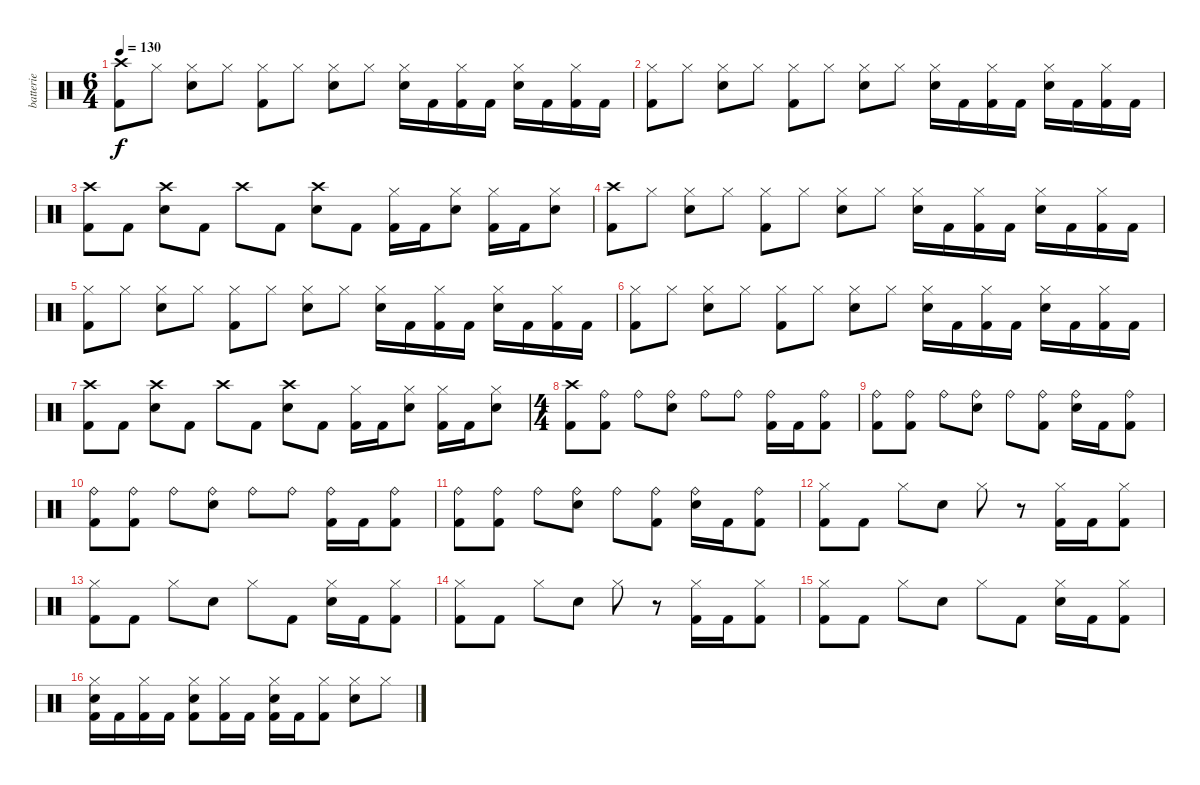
\track ("batterie" "batterie") {instrument percussion}
\staff {score}
\articulation defaults
\ts (6 4)
\tempo 130
\clef neutral
\ks c
("Crash high (hit)" "Kick (hit) 2").8{dy f} "Hi-Hat (closed)".8 ("Snare (hit) 2" "Hi-Hat (closed)").8 "Hi-Hat (closed)".8 ("Kick (hit) 2" "Hi-Hat (closed)").8 "Hi-Hat (closed)".8 ("Snare (hit) 2" "Hi-Hat (closed)").8 "Hi-Hat (closed)".8 ("Snare (hit) 2" "Hi-Hat (closed)").16 "Kick (hit) 2".16 ("Kick (hit) 2" "Hi-Hat (closed)").16 "Kick (hit) 2".16 ("Snare (hit) 2" "Hi-Hat (closed)").16 "Kick (hit) 2".16 ("Kick (hit) 2" "Hi-Hat (closed)").16 "Kick (hit) 2".16 |
("Kick (hit) 2" "Hi-Hat (closed)").8 "Hi-Hat (closed)".8 ("Snare (hit) 2" "Hi-Hat (closed)").8 "Hi-Hat (closed)".8 ("Kick (hit) 2" "Hi-Hat (closed)").8 "Hi-Hat (closed)".8 ("Snare (hit) 2" "Hi-Hat (closed)").8 "Hi-Hat (closed)".8 ("Snare (hit) 2" "Hi-Hat (closed)").16 "Kick (hit) 2".16 ("Kick (hit) 2" "Hi-Hat (closed)").16 "Kick (hit) 2".16 ("Snare (hit) 2" "Hi-Hat (closed)").16 "Kick (hit) 2".16 ("Kick (hit) 2" "Hi-Hat (closed)").16 "Kick (hit) 2".16 |
("Crash high (hit)" "Kick (hit) 2").8 "Kick (hit) 2".8 ("Crash high (hit)" "Snare (hit) 2").8 "Kick (hit) 2".8 "Crash high (hit)".8 "Kick (hit) 2".8 ("Crash high (hit)" "Snare (hit) 2").8 "Kick (hit) 2".8 ("Kick (hit) 2" "Hi-Hat (closed)").16 "Kick (hit) 2".16 ("Snare (hit) 2" "Hi-Hat (closed)").8 ("Kick (hit) 2" "Hi-Hat (closed)").16 "Kick (hit) 2".16 ("Snare (hit) 2" "Hi-Hat (closed)").8 |
("Crash high (hit)" "Kick (hit) 2").8 "Hi-Hat (closed)".8 ("Snare (hit) 2" "Hi-Hat (closed)").8 "Hi-Hat (closed)".8 ("Kick (hit) 2" "Hi-Hat (closed)").8 "Hi-Hat (closed)".8 ("Snare (hit) 2" "Hi-Hat (closed)").8 "Hi-Hat (closed)".8 ("Snare (hit) 2" "Hi-Hat (closed)").16 "Kick (hit) 2".16 ("Kick (hit) 2" "Hi-Hat (closed)").16 "Kick (hit) 2".16 ("Snare (hit) 2" "Hi-Hat (closed)").16 "Kick (hit) 2".16 ("Kick (hit) 2" "Hi-Hat (closed)").16 "Kick (hit) 2".16 |
("Kick (hit) 2" "Hi-Hat (closed)").8 "Hi-Hat (closed)".8 ("Snare (hit) 2" "Hi-Hat (closed)").8 "Hi-Hat (closed)".8 ("Kick (hit) 2" "Hi-Hat (closed)").8 "Hi-Hat (closed)".8 ("Snare (hit) 2" "Hi-Hat (closed)").8 "Hi-Hat (closed)".8 ("Snare (hit) 2" "Hi-Hat (closed)").16 "Kick (hit) 2".16 ("Kick (hit) 2" "Hi-Hat (closed)").16 "Kick (hit) 2".16 ("Snare (hit) 2" "Hi-Hat (closed)").16 "Kick (hit) 2".16 ("Kick (hit) 2" "Hi-Hat (closed)").16 "Kick (hit) 2".16 |
("Kick (hit) 2" "Hi-Hat (closed)").8 "Hi-Hat (closed)".8 ("Snare (hit) 2" "Hi-Hat (closed)").8 "Hi-Hat (closed)".8 ("Kick (hit) 2" "Hi-Hat (closed)").8 "Hi-Hat (closed)".8 ("Snare (hit) 2" "Hi-Hat (closed)").8 "Hi-Hat (closed)".8 ("Snare (hit) 2" "Hi-Hat (closed)").16 "Kick (hit) 2".16 ("Kick (hit) 2" "Hi-Hat (closed)").16 "Kick (hit) 2".16 ("Snare (hit) 2" "Hi-Hat (closed)").16 "Kick (hit) 2".16 ("Kick (hit) 2" "Hi-Hat (closed)").16 "Kick (hit) 2".16 |
("Crash high (hit)" "Kick (hit) 2").8 "Kick (hit) 2".8 ("Crash high (hit)" "Snare (hit) 2").8 "Kick (hit) 2".8 "Crash high (hit)".8 "Kick (hit) 2".8 ("Crash high (hit)" "Snare (hit) 2").8 "Kick (hit) 2".8 ("Kick (hit) 2" "Hi-Hat (closed)").16 "Kick (hit) 2".16 ("Snare (hit) 2" "Hi-Hat (closed)").8 ("Kick (hit) 2" "Hi-Hat (closed)").16 "Kick (hit) 2".16 ("Snare (hit) 2" "Hi-Hat (closed)").8 |
\ts (4 4)
("Crash high (hit)" "Kick (hit) 2").8 ("Kick (hit) 2" "Ride (bell)").8 "Ride (bell)".8 ("Snare (hit) 2" "Ride (bell)").8 "Ride (bell)".8 "Ride (bell)".8 ("Kick (hit) 2" "Ride (bell)").16 "Kick (hit) 2".16 ("Kick (hit) 2" "Ride (bell)").8 |
("Kick (hit) 2" "Ride (bell)").8 ("Kick (hit) 2" "Ride (bell)").8 "Ride (bell)".8 ("Snare (hit) 2" "Ride (bell)").8 "Ride (bell)".8 ("Kick (hit) 2" "Ride (bell)").8 ("Snare (hit) 2" "Ride (bell)").16 "Kick (hit) 2".16 ("Kick (hit) 2" "Ride (bell)").8 |
("Kick (hit) 2" "Ride (bell)").8 ("Kick (hit) 2" "Ride (bell)").8 "Ride (bell)".8 ("Snare (hit) 2" "Ride (bell)").8 "Ride (bell)".8 "Ride (bell)".8 ("Kick (hit) 2" "Ride (bell)").16 "Kick (hit) 2".16 ("Kick (hit) 2" "Ride (bell)").8 |
("Kick (hit) 2" "Ride (bell)").8 ("Kick (hit) 2" "Ride (bell)").8 "Ride (bell)".8 ("Snare (hit) 2" "Ride (bell)").8 "Ride (bell)".8 ("Kick (hit) 2" "Ride (bell)").8 ("Snare (hit) 2" "Ride (bell)").16 "Kick (hit) 2".16 ("Kick (hit) 2" "Ride (bell)").8 |
("Kick (hit) 2" "Hi-Hat (closed)").8 "Kick (hit) 2".8 "Hi-Hat (closed)".8 "Snare (hit) 2".8 "Hi-Hat (closed)".8 r.8 ("Kick (hit) 2" "Hi-Hat (closed)").16 "Kick (hit) 2".16 ("Kick (hit) 2" "Hi-Hat (closed)").8 |
("Kick (hit) 2" "Hi-Hat (closed)").8 "Kick (hit) 2".8 "Hi-Hat (closed)".8 "Snare (hit) 2".8 "Hi-Hat (closed)".8 "Kick (hit) 2".8 ("Snare (hit) 2" "Hi-Hat (closed)").16 "Kick (hit) 2".16 ("Kick (hit) 2" "Hi-Hat (closed)").8 |
("Kick (hit) 2" "Hi-Hat (closed)").8 "Kick (hit) 2".8 "Hi-Hat (closed)".8 "Snare (hit) 2".8 "Hi-Hat (closed)".8 r.8 ("Kick (hit) 2" "Hi-Hat (closed)").16 "Kick (hit) 2".16 ("Kick (hit) 2" "Hi-Hat (closed)").8 |
("Kick (hit) 2" "Hi-Hat (closed)").8 "Kick (hit) 2".8 "Hi-Hat (closed)".8 "Snare (hit) 2".8 "Hi-Hat (closed)".8 "Kick (hit) 2".8 ("Snare (hit) 2" "Hi-Hat (closed)").16 "Kick (hit) 2".16 ("Kick (hit) 2" "Hi-Hat (closed)").8 |
("Snare (hit) 2" "Kick (hit) 2" "Hi-Hat (closed)").16 "Kick (hit) 2".16 ("Kick (hit) 2" "Hi-Hat (closed)").16 "Kick (hit) 2".16 ("Snare (hit) 2" "Kick (hit) 2" "Hi-Hat (closed)").8 ("Kick (hit) 2" "Hi-Hat (closed)").16 "Kick (hit) 2".16 ("Snare (hit) 2" "Kick (hit) 2" "Hi-Hat (closed)").16 "Kick (hit) 2".16 ("Kick (hit) 2" "Hi-Hat (closed)").8 ("Snare (hit) 2" "Hi-Hat (closed)").8 "Hi-Hat (closed)".8
